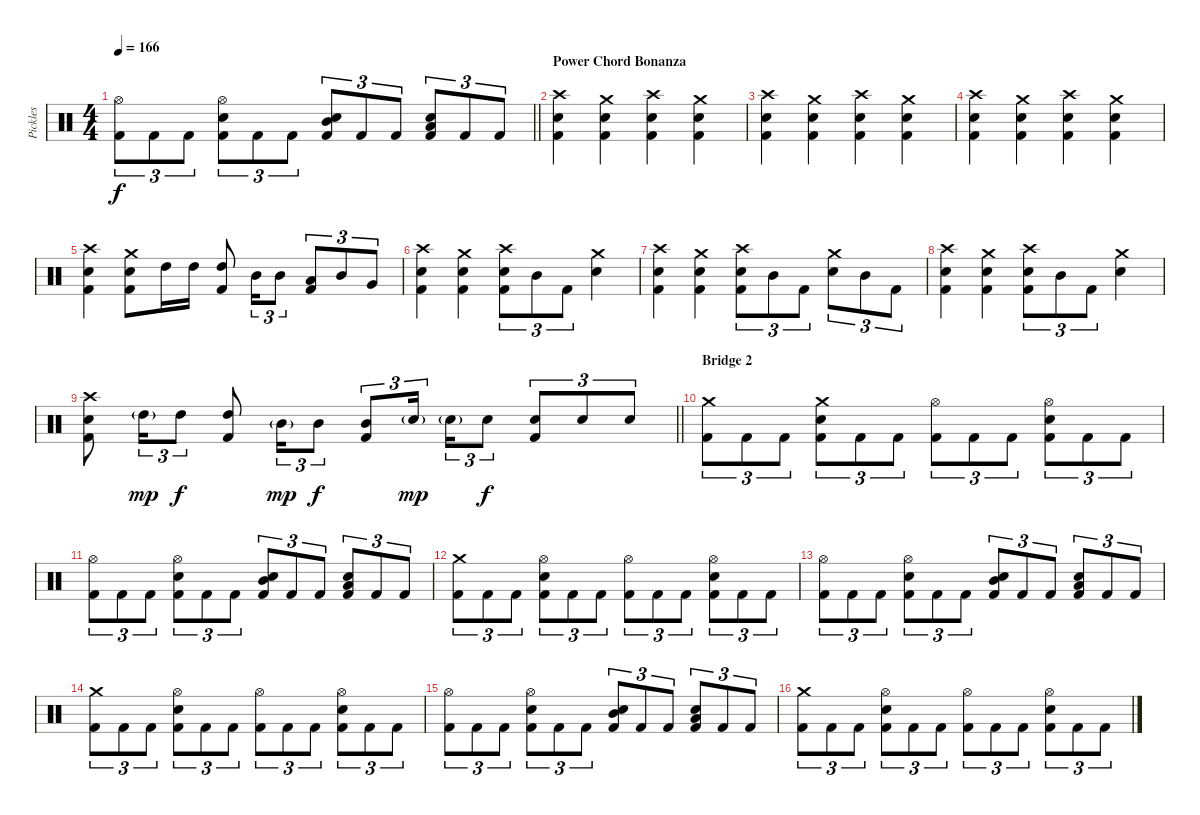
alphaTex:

\track ("Pickles" "Pickles") {instrument percussion}
\staff {score}
\articulation defaults
\ts (4 4)
\tempo 166
\clef neutral
\barLineRight lightlight
\ks c
("Hi-Hat (open)" "Kick (hit) 2").8{tu (3 2) dy f} "Kick (hit) 2".8{tu (3 2)} "Kick (hit) 2".8{tu (3 2)} ("Hi-Hat (open)" "Snare (hit) 2" "Kick (hit) 2").8{tu (3 2)} "Kick (hit) 2".8{tu (3 2)} "Kick (hit) 2".8{tu (3 2)} ("Mid Tom (hit)" "Snare (hit) 2" "Kick (hit) 2").8{tu (3 2)} "Kick (hit) 2".8{tu (3 2)} "Kick (hit) 2".8{tu (3 2)} ("Low Tom (hit)" "Snare (hit) 2" "Kick (hit) 2").8{tu (3 2)} "Kick (hit) 2".8{tu (3 2)} "Kick (hit) 2".8{tu (3 2)} |
\section ("" "Power Chord Bonanza")
("Crash high (hit)" "Snare (hit) 2" "Kick (hit) 2").4 ("Crash medium (hit)" "Snare (hit) 2" "Kick (hit) 2").4 ("Crash high (hit)" "Snare (hit) 2" "Kick (hit) 2").4 ("Crash medium (hit)" "Snare (hit) 2" "Kick (hit) 2").4 |
("Crash high (hit)" "Snare (hit) 2" "Kick (hit) 2").4 ("Crash medium (hit)" "Snare (hit) 2" "Kick (hit) 2").4 ("Crash high (hit)" "Snare (hit) 2" "Kick (hit) 2").4 ("Crash medium (hit)" "Snare (hit) 2" "Kick (hit) 2").4 |
("Crash high (hit)" "Snare (hit) 2" "Kick (hit) 2").4 ("Crash medium (hit)" "Snare (hit) 2" "Kick (hit) 2").4 ("Crash high (hit)" "Snare (hit) 2" "Kick (hit) 2").4 ("Crash medium (hit)" "Snare (hit) 2" "Kick (hit) 2").4 |
("Crash high (hit)" "Snare (hit) 2" "Kick (hit) 2").4 ("Crash medium (hit)" "Snare (hit) 2" "Kick (hit) 2").8 "High Tom (hit)".16 "High Tom (hit)".16 ("High Tom (hit)" "Kick (hit) 2").8 "Mid Tom (hit)".16{tu (3 2)} "Mid Tom (hit)".8{tu (3 2)} ("Low Tom (hit)" "Kick (hit) 2").8{tu (3 2)} "Mid Tom (hit)".8{tu (3 2)} "Very Low Tom (hit)".8{tu (3 2)} |
("Crash high (hit)" "Snare (hit) 2" "Kick (hit) 2").4 ("Crash medium (hit)" "Snare (hit) 2" "Kick (hit) 2").4 ("Crash high (hit)" "Snare (hit) 2" "Kick (hit) 2").8{tu (3 2)} "Mid Tom (hit)".8{tu (3 2)} "Kick (hit) 2".8{tu (3 2)} ("Crash medium (hit)" "Snare (hit) 2").4 |
("Crash high (hit)" "Snare (hit) 2" "Kick (hit) 2").4 ("Crash medium (hit)" "Snare (hit) 2" "Kick (hit) 2").4 ("Crash high (hit)" "Snare (hit) 2" "Kick (hit) 2").8{tu (3 2)} "Mid Tom (hit)".8{tu (3 2)} "Kick (hit) 2".8{tu (3 2)} ("Crash medium (hit)" "Snare (hit) 2").8{tu (3 2)} "Mid Tom (hit)".8{tu (3 2)} "Kick (hit) 2".8{tu (3 2)} |
("Crash high (hit)" "Snare (hit) 2" "Kick (hit) 2").4 ("Crash medium (hit)" "Snare (hit) 2" "Kick (hit) 2").4 ("Crash high (hit)" "Snare (hit) 2" "Kick (hit) 2").8{tu (3 2)} "Mid Tom (hit)".8{tu (3 2)} "Kick (hit) 2".8{tu (3 2)} ("Crash medium (hit)" "Snare (hit) 2").4 |
\barLineRight lightlight
("Crash high (hit)" "Snare (hit) 2" "Kick (hit) 2").8 "High Tom (hit)"{g}.16{tu (3 2) dy mp} "High Tom (hit)".8{tu (3 2) dy f} ("High Tom (hit)" "Kick (hit) 2").8 "Mid Tom (hit)"{g}.16{tu (3 2) dy mp} "Mid Tom (hit)".8{tu (3 2) dy f} ("Mid Tom (hit)" "Kick (hit) 2").8{tu (3 2)} "Snare (hit) 2"{g}.16{tu (3 2) dy mp beam splitsecondary} "Snare (hit) 2"{g}.16{tu (3 2)} "Snare (hit) 2".8{tu (3 2) dy f} ("Snare (hit) 2" "Kick (hit) 2").8{tu (3 2)} "Snare (hit) 2".8{tu (3 2)} "Snare (hit) 2".8{tu (3 2)} |
\section ("" "Bridge 2")
("Crash medium (hit)" "Kick (hit) 2").8{tu (3 2)} "Kick (hit) 2".8{tu (3 2)} "Kick (hit) 2".8{tu (3 2)} ("Crash medium (hit)" "Snare (hit) 2" "Kick (hit) 2").8{tu (3 2)} "Kick (hit) 2".8{tu (3 2)} "Kick (hit) 2".8{tu (3 2)} ("Hi-Hat (open)" "Kick (hit) 2").8{tu (3 2)} "Kick (hit) 2".8{tu (3 2)} "Kick (hit) 2".8{tu (3 2)} ("Hi-Hat (open)" "Snare (hit) 2" "Kick (hit) 2").8{tu (3 2)} "Kick (hit) 2".8{tu (3 2)} "Kick (hit) 2".8{tu (3 2)} |
("Hi-Hat (open)" "Kick (hit) 2").8{tu (3 2)} "Kick (hit) 2".8{tu (3 2)} "Kick (hit) 2".8{tu (3 2)} ("Hi-Hat (open)" "Snare (hit) 2" "Kick (hit) 2").8{tu (3 2)} "Kick (hit) 2".8{tu (3 2)} "Kick (hit) 2".8{tu (3 2)} ("Mid Tom (hit)" "Snare (hit) 2" "Kick (hit) 2").8{tu (3 2)} "Kick (hit) 2".8{tu (3 2)} "Kick (hit) 2".8{tu (3 2)} ("Low Tom (hit)" "Snare (hit) 2" "Kick (hit) 2").8{tu (3 2)} "Kick (hit) 2".8{tu (3 2)} "Kick (hit) 2".8{tu (3 2)} |
("Crash medium (hit)" "Kick (hit) 2").8{tu (3 2)} "Kick (hit) 2".8{tu (3 2)} "Kick (hit) 2".8{tu (3 2)} ("Hi-Hat (open)" "Snare (hit) 2" "Kick (hit) 2").8{tu (3 2)} "Kick (hit) 2".8{tu (3 2)} "Kick (hit) 2".8{tu (3 2)} ("Hi-Hat (open)" "Kick (hit) 2").8{tu (3 2)} "Kick (hit) 2".8{tu (3 2)} "Kick (hit) 2".8{tu (3 2)} ("Hi-Hat (open)" "Snare (hit) 2" "Kick (hit) 2").8{tu (3 2)} "Kick (hit) 2".8{tu (3 2)} "Kick (hit) 2".8{tu (3 2)} |
("Hi-Hat (open)" "Kick (hit) 2").8{tu (3 2)} "Kick (hit) 2".8{tu (3 2)} "Kick (hit) 2".8{tu (3 2)} ("Hi-Hat (open)" "Snare (hit) 2" "Kick (hit) 2").8{tu (3 2)} "Kick (hit) 2".8{tu (3 2)} "Kick (hit) 2".8{tu (3 2)} ("Mid Tom (hit)" "Snare (hit) 2" "Kick (hit) 2").8{tu (3 2)} "Kick (hit) 2".8{tu (3 2)} "Kick (hit) 2".8{tu (3 2)} ("Low Tom (hit)" "Snare (hit) 2" "Kick (hit) 2").8{tu (3 2)} "Kick (hit) 2".8{tu (3 2)} "Kick (hit) 2".8{tu (3 2)} |
("Crash medium (hit)" "Kick (hit) 2").8{tu (3 2)} "Kick (hit) 2".8{tu (3 2)} "Kick (hit) 2".8{tu (3 2)} ("Hi-Hat (open)" "Snare (hit) 2" "Kick (hit) 2").8{tu (3 2)} "Kick (hit) 2".8{tu (3 2)} "Kick (hit) 2".8{tu (3 2)} ("Hi-Hat (open)" "Kick (hit) 2").8{tu (3 2)} "Kick (hit) 2".8{tu (3 2)} "Kick (hit) 2".8{tu (3 2)} ("Hi-Hat (open)" "Snare (hit) 2" "Kick (hit) 2").8{tu (3 2)} "Kick (hit) 2".8{tu (3 2)} "Kick (hit) 2".8{tu (3 2)} |
("Hi-Hat (open)" "Kick (hit) 2").8{tu (3 2)} "Kick (hit) 2".8{tu (3 2)} "Kick (hit) 2".8{tu (3 2)} ("Hi-Hat (open)" "Snare (hit) 2" "Kick (hit) 2").8{tu (3 2)} "Kick (hit) 2".8{tu (3 2)} "Kick (hit) 2".8{tu (3 2)} ("Mid Tom (hit)" "Snare (hit) 2" "Kick (hit) 2").8{tu (3 2)} "Kick (hit) 2".8{tu (3 2)} "Kick (hit) 2".8{tu (3 2)} ("Low Tom (hit)" "Snare (hit) 2" "Kick (hit) 2").8{tu (3 2)} "Kick (hit) 2".8{tu (3 2)} "Kick (hit) 2".8{tu (3 2)} |
("Crash medium (hit)" "Kick (hit) 2").8{tu (3 2)} "Kick (hit) 2".8{tu (3 2)} "Kick (hit) 2".8{tu (3 2)} ("Hi-Hat (open)" "Snare (hit) 2" "Kick (hit) 2").8{tu (3 2)} "Kick (hit) 2".8{tu (3 2)} "Kick (hit) 2".8{tu (3 2)} ("Hi-Hat (open)" "Kick (hit) 2").8{tu (3 2)} "Kick (hit) 2".8{tu (3 2)} "Kick (hit) 2".8{tu (3 2)} ("Hi-Hat (open)" "Snare (hit) 2" "Kick (hit) 2").8{tu (3 2)} "Kick (hit) 2".8{tu (3 2)} "Kick (hit) 2".8{tu (3 2)}
